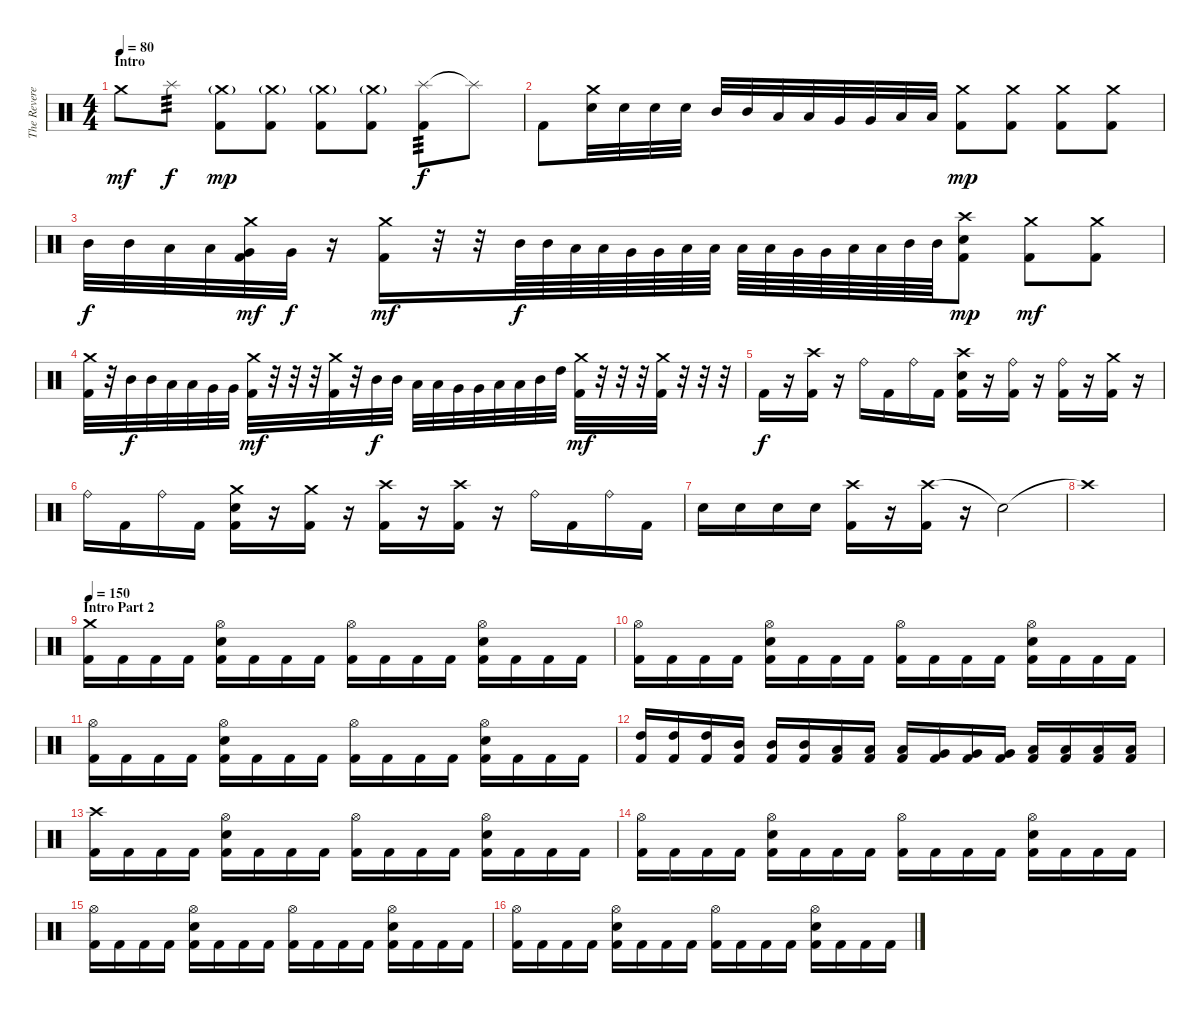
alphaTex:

\track ("The Reverend" "The Revere") {instrument percussion}
\staff {score}
\articulation defaults
\ts (4 4)
\section ("" "Intro")
\tempo 80
\clef neutral
\ks c "Crash medium (hit)".8{dy mf volume 13} "Splash (hit)".8{tp 3 dy f}
("Crash medium (hit)"{g} "Kick (hit) 2").8{dy mp} ("Crash medium (hit)"{g} "Kick (hit) 2").8 ("Crash medium (hit)"{g} "Kick (hit) 2").8 ("Crash medium (hit)"{g} "Kick (hit) 2").8 ("Splash (hit)" "Kick (hit) 2").8{tp 3 dy f} "Splash (hit)"{t}.8 |
"Kick (hit) 2".8 ("Crash medium (hit)" "Electric Snare (hit)").32 "Electric Snare (hit)".32 "Electric Snare (hit)".32 "Electric Snare (hit)".32 "Mid Tom (hit)".32 "Mid Tom (hit)".32 "Low Tom (hit)".32 "Low Tom (hit)".32 "Very Low Tom (hit)".32 "Very Low Tom (hit)".32 "Low Floor Tom (hit)".32 "Low Floor Tom (hit)".32 ("Crash medium (hit)" "Kick (hit) 2").8{dy mp} ("Crash medium (hit)" "Kick (hit) 2").8 ("Crash medium (hit)" "Kick (hit) 2").8 ("Crash medium (hit)" "Kick (hit) 2").8 |
"Mid Tom (hit)".32{dy f} "Mid Tom (hit)".32 "Low Tom (hit)".32 "Low Tom (hit)".32 ("Crash medium (hit)" "Very Low Tom (hit)" "Kick (hit) 2").32{dy mf} "Very Low Tom (hit)".32{dy f} r.16 ("Crash medium (hit)" "Kick (hit) 2").16{dy mf} r.32 r.32 "Mid Tom (hit)".64{dy f} "Mid Tom (hit)".64 "Low Tom (hit)".64 "Low Tom (hit)".64 "Very Low Tom (hit)".64 "Very Low Tom (hit)".64 "Low Floor Tom (hit)".64 "Low Floor Tom (hit)".64 "Low Floor Tom (hit)".64 "Low Floor Tom (hit)".64 "Very Low Tom (hit)".64 "Very Low Tom (hit)".64 "Low Tom (hit)".64 "Low Tom (hit)".64 "Mid Tom (hit)".64 "Mid Tom (hit)".64 ("Crash high (hit)" "Electric Snare (hit)" "Kick (hit) 2").8{dy mp} ("Crash medium (hit)" "Kick (hit) 2").8{dy mf} ("Crash medium (hit)" "Kick (hit) 2").8 |
("Crash medium (hit)" "Kick (hit) 2").32 r.32 "Mid Tom (hit)".32{dy f} "Mid Tom (hit)".32 "Low Tom (hit)".32 "Low Tom (hit)".32 "Very Low Tom (hit)".32 "Very Low Tom (hit)".32 ("Crash medium (hit)" "Kick (hit) 2").32{dy mf} r.32 r.32 r.32 ("Crash medium (hit)" "Kick (hit) 2").32 r.32 "Mid Tom (hit)".32{dy f} "Mid Tom (hit)".32 "Low Tom (hit)".32 "Low Tom (hit)".32 "Very Low Tom (hit)".32 "Very Low Tom (hit)".32 "Low Tom (hit)".32 "Low Tom (hit)".32 "Mid Tom (hit)".32 "High Tom (hit)".32 ("Crash medium (hit)" "Kick (hit) 2").32{dy mf} r.32 r.32 r.32 ("Crash medium (hit)" "Kick (hit) 2").32 r.32 r.32 r.32 |
"Kick (hit) 2".16{dy f} r.16 ("Crash high (hit)" "Kick (hit) 2").16 r.16 "Ride (bell)".16 "Kick (hit) 2".16 "Ride (bell)".16 "Kick (hit) 2".16 ("Crash high (hit)" "Electric Snare (hit)" "Kick (hit) 2").16 r.16 ("Ride (bell)" "Kick (hit) 2").16 r.16 ("Ride (bell)" "Kick (hit) 2").16 r.16 ("Crash medium (hit)" "Kick (hit) 2").16 r.16 |
"Ride (bell)".16 "Kick (hit) 2".16 "Ride (bell)".16 "Kick (hit) 2".16 ("Crash medium (hit)" "Electric Snare (hit)" "Kick (hit) 2").16 r.16 ("Crash medium (hit)" "Kick (hit) 2").16 r.16 ("Crash high (hit)" "Kick (hit) 2").16 r.16 ("Crash high (hit)" "Kick (hit) 2").16 r.16 "Ride (bell)".16 "Kick (hit) 2".16 "Ride (bell)".16 "Kick (hit) 2".16 |
"Electric Snare (hit)".16 "Electric Snare (hit)".16 "Electric Snare (hit)".16 "Electric Snare (hit)".16 ("Crash high (hit)" "Kick (hit) 2").16 r.16 ("Crash high (hit)" "Kick (hit) 2").16 r.16 "Snare (hit)"{t}.2 |
"Crash high (hit)"{t}.1 |
\section ("" "Intro Part 2")
\tempo 150
("Crash medium (hit)" "Kick (hit) 2").16 "Kick (hit) 2".16 "Kick (hit) 2".16 "Kick (hit) 2".16 ("Hi-Hat (open)" "Electric Snare (hit)" "Kick (hit) 2").16 "Kick (hit) 2".16 "Kick (hit) 2".16 "Kick (hit) 2".16 ("Hi-Hat (open)" "Kick (hit) 2").16 "Kick (hit) 2".16 "Kick (hit) 2".16 "Kick (hit) 2".16 ("Hi-Hat (open)" "Electric Snare (hit)" "Kick (hit) 2").16 "Kick (hit) 2".16 "Kick (hit) 2".16 "Kick (hit) 2".16 |
("Hi-Hat (open)" "Kick (hit) 2").16 "Kick (hit) 2".16 "Kick (hit) 2".16 "Kick (hit) 2".16 ("Hi-Hat (open)" "Electric Snare (hit)" "Kick (hit) 2").16 "Kick (hit) 2".16 "Kick (hit) 2".16 "Kick (hit) 2".16 ("Hi-Hat (open)" "Kick (hit) 2").16 "Kick (hit) 2".16 "Kick (hit) 2".16 "Kick (hit) 2".16 ("Hi-Hat (open)" "Electric Snare (hit)" "Kick (hit) 2").16 "Kick (hit) 2".16 "Kick (hit) 2".16 "Kick (hit) 2".16 |
("Hi-Hat (open)" "Kick (hit) 2").16 "Kick (hit) 2".16 "Kick (hit) 2".16 "Kick (hit) 2".16 ("Hi-Hat (open)" "Electric Snare (hit)" "Kick (hit) 2").16 "Kick (hit) 2".16 "Kick (hit) 2".16 "Kick (hit) 2".16 ("Hi-Hat (open)" "Kick (hit) 2").16 "Kick (hit) 2".16 "Kick (hit) 2".16 "Kick (hit) 2".16 ("Hi-Hat (open)" "Electric Snare (hit)" "Kick (hit) 2").16 "Kick (hit) 2".16 "Kick (hit) 2".16 "Kick (hit) 2".16 |
("High Tom (hit)" "Kick (hit) 2").16 ("High Tom (hit)" "Kick (hit) 2").16 ("High Tom (hit)" "Kick (hit) 2").16 ("Mid Tom (hit)" "Kick (hit) 2").16 ("Mid Tom (hit)" "Kick (hit) 2").16 ("Mid Tom (hit)" "Kick (hit) 2").16 ("Low Tom (hit)" "Kick (hit) 2").16 ("Low Tom (hit)" "Kick (hit) 2").16 ("Low Tom (hit)" "Kick (hit) 2").16 ("Very Low Tom (hit)" "Kick (hit) 2").16 ("Very Low Tom (hit)" "Kick (hit) 2").16 ("Very Low Tom (hit)" "Kick (hit) 2").16 ("Low Floor Tom (hit)" "Kick (hit) 2").16 ("Low Floor Tom (hit)" "Kick (hit) 2").16 ("Low Floor Tom (hit)" "Kick (hit) 2").16 ("Low Floor Tom (hit)" "Kick (hit) 2").16 |
("Crash high (hit)" "Kick (hit) 2").16 "Kick (hit) 2".16 "Kick (hit) 2".16 "Kick (hit) 2".16 ("Hi-Hat (open)" "Electric Snare (hit)" "Kick (hit) 2").16 "Kick (hit) 2".16 "Kick (hit) 2".16 "Kick (hit) 2".16 ("Hi-Hat (open)" "Kick (hit) 2").16 "Kick (hit) 2".16 "Kick (hit) 2".16 "Kick (hit) 2".16 ("Hi-Hat (open)" "Electric Snare (hit)" "Kick (hit) 2").16 "Kick (hit) 2".16 "Kick (hit) 2".16 "Kick (hit) 2".16 |
("Hi-Hat (open)" "Kick (hit) 2").16 "Kick (hit) 2".16 "Kick (hit) 2".16 "Kick (hit) 2".16 ("Hi-Hat (open)" "Electric Snare (hit)" "Kick (hit) 2").16 "Kick (hit) 2".16 "Kick (hit) 2".16 "Kick (hit) 2".16 ("Hi-Hat (open)" "Kick (hit) 2").16 "Kick (hit) 2".16 "Kick (hit) 2".16 "Kick (hit) 2".16 ("Hi-Hat (open)" "Electric Snare (hit)" "Kick (hit) 2").16 "Kick (hit) 2".16 "Kick (hit) 2".16 "Kick (hit) 2".16 |
("Hi-Hat (open)" "Kick (hit) 2").16 "Kick (hit) 2".16 "Kick (hit) 2".16 "Kick (hit) 2".16 ("Hi-Hat (open)" "Electric Snare (hit)" "Kick (hit) 2").16 "Kick (hit) 2".16 "Kick (hit) 2".16 "Kick (hit) 2".16 ("Hi-Hat (open)" "Kick (hit) 2").16 "Kick (hit) 2".16 "Kick (hit) 2".16 "Kick (hit) 2".16 ("Hi-Hat (open)" "Electric Snare (hit)" "Kick (hit) 2").16 "Kick (hit) 2".16 "Kick (hit) 2".16 "Kick (hit) 2".16 |
("Hi-Hat (open)" "Kick (hit) 2").16 "Kick (hit) 2".16 "Kick (hit) 2".16 "Kick (hit) 2".16 ("Hi-Hat (open)" "Electric Snare (hit)" "Kick (hit) 2").16 "Kick (hit) 2".16 "Kick (hit) 2".16 "Kick (hit) 2".16 ("Hi-Hat (open)" "Kick (hit) 2").16 "Kick (hit) 2".16 "Kick (hit) 2".16 "Kick (hit) 2".16 ("Hi-Hat (open)" "Electric Snare (hit)" "Kick (hit) 2").16 "Kick (hit) 2".16 "Kick (hit) 2".16 "Kick (hit) 2".16
